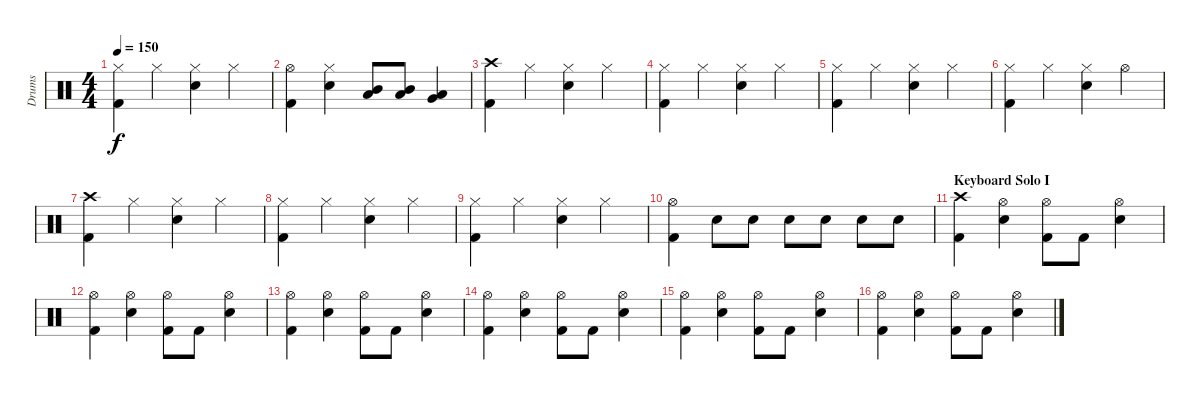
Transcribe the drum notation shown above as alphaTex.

\track ("Drums" "Drums") {instrument percussion}
\staff {score}
\articulation defaults
\ts (4 4)
\tempo 150
\clef neutral
\ks c
("Hi-Hat (closed)" "Kick (hit) 2").4{dy f} "Hi-Hat (closed)".4 ("Hi-Hat (closed)" "Electric Snare (hit)").4 "Hi-Hat (closed)".4 |
("Hi-Hat (open)" "Kick (hit) 2").4 ("Hi-Hat (closed)" "Electric Snare (hit)").4 ("Mid Tom (hit)" "Low Tom (hit)").8 ("Mid Tom (hit)" "Low Tom (hit)").8 ("Low Tom (hit)" "Very Low Tom (hit)").4 |
("Crash high (hit)" "Kick (hit) 2").4 "Hi-Hat (closed)".4 ("Hi-Hat (closed)" "Electric Snare (hit)").4 "Hi-Hat (closed)".4 |
("Hi-Hat (closed)" "Kick (hit) 2").4 "Hi-Hat (closed)".4 ("Hi-Hat (closed)" "Electric Snare (hit)").4 "Hi-Hat (closed)".4 |
("Hi-Hat (closed)" "Kick (hit) 2").4 "Hi-Hat (closed)".4 ("Hi-Hat (closed)" "Electric Snare (hit)").4 "Hi-Hat (closed)".4 |
("Hi-Hat (closed)" "Kick (hit) 2").4 "Hi-Hat (closed)".4 ("Hi-Hat (closed)" "Electric Snare (hit)").4 "Hi-Hat (open)".4 |
("Crash high (hit)" "Kick (hit) 2").4 "Hi-Hat (closed)".4 ("Hi-Hat (closed)" "Electric Snare (hit)").4 "Hi-Hat (closed)".4 |
("Hi-Hat (closed)" "Kick (hit) 2").4 "Hi-Hat (closed)".4 ("Hi-Hat (closed)" "Electric Snare (hit)").4 "Hi-Hat (closed)".4 |
("Hi-Hat (closed)" "Kick (hit) 2").4 "Hi-Hat (closed)".4 ("Hi-Hat (closed)" "Electric Snare (hit)").4 "Hi-Hat (closed)".4 |
("Hi-Hat (open)" "Kick (hit) 2").4 "Electric Snare (hit)".8 "Electric Snare (hit)".8 "Electric Snare (hit)".8 "Electric Snare (hit)".8 "Electric Snare (hit)".8 "Electric Snare (hit)".8 |
\section ("" "Keyboard Solo I")
("Crash high (hit)" "Kick (hit) 2").4 ("Hi-Hat (open)" "Electric Snare (hit)").4 ("Hi-Hat (open)" "Kick (hit) 2").8 "Kick (hit) 2".8 ("Hi-Hat (open)" "Electric Snare (hit)").4 |
("Hi-Hat (open)" "Kick (hit) 2").4 ("Hi-Hat (open)" "Electric Snare (hit)").4 ("Hi-Hat (open)" "Kick (hit) 2").8 "Kick (hit) 2".8 ("Hi-Hat (open)" "Electric Snare (hit)").4 |
("Hi-Hat (open)" "Kick (hit) 2").4 ("Hi-Hat (open)" "Electric Snare (hit)").4 ("Hi-Hat (open)" "Kick (hit) 2").8 "Kick (hit) 2".8 ("Hi-Hat (open)" "Electric Snare (hit)").4 |
("Hi-Hat (open)" "Kick (hit) 2").4 ("Hi-Hat (open)" "Electric Snare (hit)").4 ("Hi-Hat (open)" "Kick (hit) 2").8 "Kick (hit) 2".8 ("Hi-Hat (open)" "Electric Snare (hit)").4 |
("Hi-Hat (open)" "Kick (hit) 2").4 ("Hi-Hat (open)" "Electric Snare (hit)").4 ("Hi-Hat (open)" "Kick (hit) 2").8 "Kick (hit) 2".8 ("Hi-Hat (open)" "Electric Snare (hit)").4 |
("Hi-Hat (open)" "Kick (hit) 2").4 ("Hi-Hat (open)" "Electric Snare (hit)").4 ("Hi-Hat (open)" "Kick (hit) 2").8 "Kick (hit) 2".8 ("Hi-Hat (open)" "Electric Snare (hit)").4
